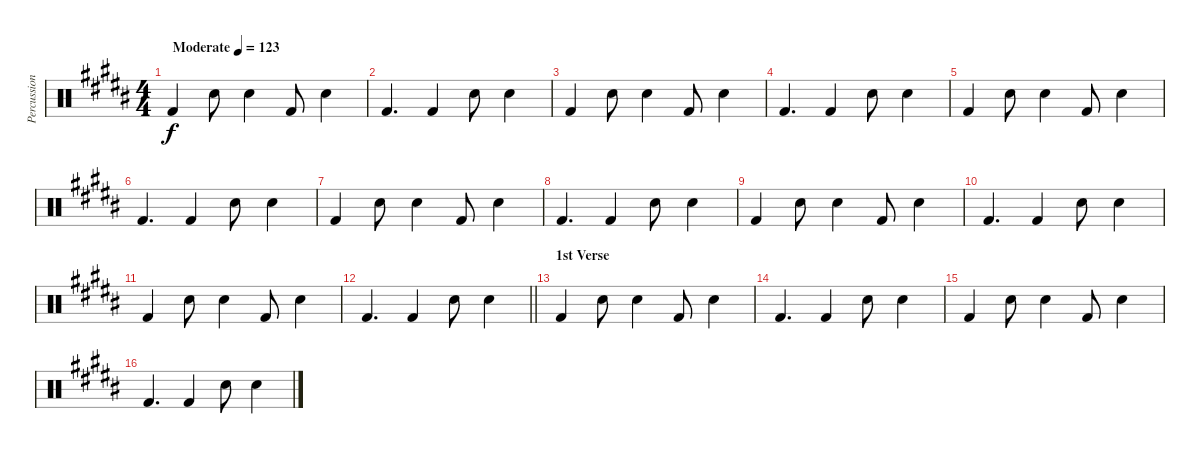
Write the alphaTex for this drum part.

\track ("Percussion" "Percussion") {instrument percussion}
\staff {score}
\articulation defaults
\ts (4 4)
\tempo (123 "Moderate")
\clef neutral
\ks g#minor "Kick (hit) 2".4{dy f} "Hand Clap (hit)".8 "Hand Clap (hit)".4 "Kick (hit) 2".8 "Hand Clap (hit)".4
|
"Kick (hit) 2".4{d} "Kick (hit) 2".4 "Hand Clap (hit)".8 "Hand Clap (hit)".4 |
"Kick (hit) 2".4 "Hand Clap (hit)".8 "Hand Clap (hit)".4 "Kick (hit) 2".8 "Hand Clap (hit)".4 |
"Kick (hit) 2".4{d} "Kick (hit) 2".4 "Hand Clap (hit)".8 "Hand Clap (hit)".4 |
"Kick (hit) 2".4 "Hand Clap (hit)".8 "Hand Clap (hit)".4 "Kick (hit) 2".8 "Hand Clap (hit)".4 |
"Kick (hit) 2".4{d} "Kick (hit) 2".4 "Hand Clap (hit)".8 "Hand Clap (hit)".4 |
"Kick (hit) 2".4 "Hand Clap (hit)".8 "Hand Clap (hit)".4 "Kick (hit) 2".8 "Hand Clap (hit)".4 |
"Kick (hit) 2".4{d} "Kick (hit) 2".4 "Hand Clap (hit)".8 "Hand Clap (hit)".4 |
"Kick (hit) 2".4 "Hand Clap (hit)".8 "Hand Clap (hit)".4 "Kick (hit) 2".8 "Hand Clap (hit)".4 |
"Kick (hit) 2".4{d} "Kick (hit) 2".4 "Hand Clap (hit)".8 "Hand Clap (hit)".4 |
"Kick (hit) 2".4 "Hand Clap (hit)".8 "Hand Clap (hit)".4 "Kick (hit) 2".8 "Hand Clap (hit)".4 |
\barLineRight lightlight "Kick (hit) 2".4{d} "Kick (hit) 2".4 "Hand Clap (hit)".8 "Hand Clap (hit)".4
|
\section ("" "1st Verse")
"Kick (hit) 2".4 "Hand Clap (hit)".8 "Hand Clap (hit)".4 "Kick (hit) 2".8 "Hand Clap (hit)".4 |
"Kick (hit) 2".4{d} "Kick (hit) 2".4 "Hand Clap (hit)".8 "Hand Clap (hit)".4 |
"Kick (hit) 2".4 "Hand Clap (hit)".8 "Hand Clap (hit)".4 "Kick (hit) 2".8 "Hand Clap (hit)".4 |
"Kick (hit) 2".4{d} "Kick (hit) 2".4 "Hand Clap (hit)".8 "Hand Clap (hit)".4
